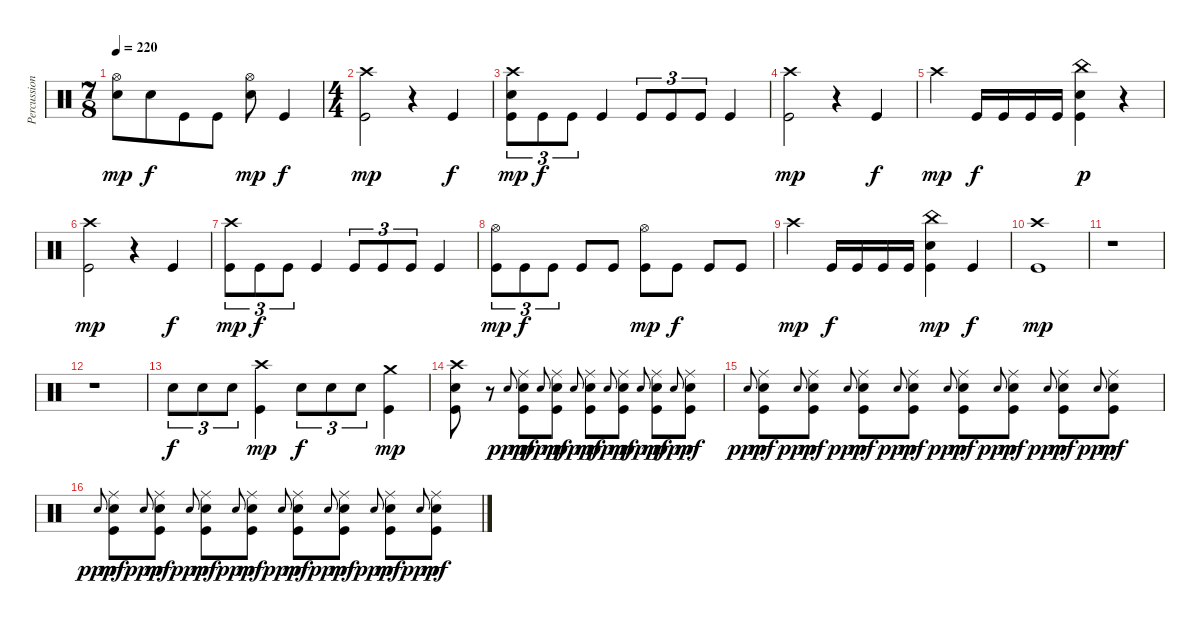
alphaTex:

\track ("Percussion" "Percussion") {instrument percussion}
\staff {score}
\articulation defaults
\ts (7 8)
\tempo 220
\clef neutral
\ks c
("Hi-Hat (open)" "Electric Snare (hit)").8{dy mp} "Electric Snare (hit)".8{dy f} "Kick (hit)".8 "Kick (hit)".8 ("Hi-Hat (open)" "Electric Snare (hit)").8{dy mp} "Kick (hit)".4{dy f} |
\ts (4 4)
("Crash high (hit)" "Kick (hit)").2{dy mp} r.4 "Kick (hit)".4{dy f} |
("Crash high (hit)" "Electric Snare (hit)" "Kick (hit)").8{tu (3 2) dy mp} "Kick (hit)".8{tu (3 2) dy f} "Kick (hit)".8{tu (3 2)} "Kick (hit)".4 "Kick (hit)".8{tu (3 2)} "Kick (hit)".8{tu (3 2)} "Kick (hit)".8{tu (3 2)} "Kick (hit)".4 |
("Crash high (hit)" "Kick (hit)").2{dy mp} r.4 "Kick (hit)".4{dy f} |
"Crash high (hit)".4{dy mp} "Kick (hit)".16{dy f} "Kick (hit)".16 "Kick (hit)".16 "Kick (hit)".16 ("China (hit)" "Electric Snare (hit)" "Kick (hit)").4{dy p} r.4 |
("Crash high (hit)" "Kick (hit)").2{dy mp} r.4 "Kick (hit)".4{dy f} |
("Crash high (hit)" "Kick (hit)").8{tu (3 2) dy mp} "Kick (hit)".8{tu (3 2) dy f} "Kick (hit)".8{tu (3 2)} "Kick (hit)".4 "Kick (hit)".8{tu (3 2)} "Kick (hit)".8{tu (3 2)} "Kick (hit)".8{tu (3 2)} "Kick (hit)".4 |
("Hi-Hat (open)" "Kick (hit)").8{tu (3 2) dy mp} "Kick (hit)".8{tu (3 2) dy f} "Kick (hit)".8{tu (3 2)} "Kick (hit)".8 "Kick (hit)".8 ("Hi-Hat (open)" "Kick (hit)").8{dy mp} "Kick (hit)".8{dy f} "Kick (hit)".8 "Kick (hit)".8 |
"Crash high (hit)".4{dy mp} "Kick (hit)".16{dy f} "Kick (hit)".16 "Kick (hit)".16 "Kick (hit)".16 ("China (hit)" "Electric Snare (hit)" "Kick (hit)").4{dy mp} "Kick (hit)".4{dy f} |
("Crash high (hit)" "Kick (hit)").1{dy mp} |
r.1 |
r.1 |
"Electric Snare (hit)".8{tu (3 2) dy f} "Electric Snare (hit)".8{tu (3 2)} "Electric Snare (hit)".8{tu (3 2)} ("Crash high (hit)" "Kick (hit)").4{dy mp} "Electric Snare (hit)".8{tu (3 2) dy f} "Electric Snare (hit)".8{tu (3 2)} "Electric Snare (hit)".8{tu (3 2)} ("Crash medium (hit)" "Kick (hit)").4{dy mp} |
("Crash high (hit)" "Electric Snare (hit)" "Kick (hit)").8 r.8 "Electric Snare (hit)".8{gr onbeat dy ppp} ("Ride (middle)" "Electric Snare (hit)" "Kick (hit)").8{dy mf} "Electric Snare (hit)".8{gr onbeat dy ppp} ("Ride (middle)" "Electric Snare (hit)" "Kick (hit)").8{dy mf} "Electric Snare (hit)".8{gr onbeat dy ppp} ("Ride (middle)" "Electric Snare (hit)" "Kick (hit)").8{dy mf} "Electric Snare (hit)".8{gr onbeat dy ppp} ("Ride (middle)" "Electric Snare (hit)" "Kick (hit)").8{dy mf} "Electric Snare (hit)".8{gr onbeat dy ppp} ("Ride (middle)" "Electric Snare (hit)" "Kick (hit)").8{dy mf} "Electric Snare (hit)".8{gr onbeat dy ppp} ("Ride (middle)" "Electric Snare (hit)" "Kick (hit)").8{dy mf} |
"Electric Snare (hit)".8{gr onbeat dy ppp} ("Ride (middle)" "Electric Snare (hit)" "Kick (hit)").8{dy mf} "Electric Snare (hit)".8{gr onbeat dy ppp} ("Ride (middle)" "Electric Snare (hit)" "Kick (hit)").8{dy mf} "Electric Snare (hit)".8{gr onbeat dy ppp} ("Ride (middle)" "Electric Snare (hit)" "Kick (hit)").8{dy mf} "Electric Snare (hit)".8{gr onbeat dy ppp} ("Ride (middle)" "Electric Snare (hit)" "Kick (hit)").8{dy mf} "Electric Snare (hit)".8{gr onbeat dy ppp} ("Ride (middle)" "Electric Snare (hit)" "Kick (hit)").8{dy mf} "Electric Snare (hit)".8{gr onbeat dy ppp} ("Ride (middle)" "Electric Snare (hit)" "Kick (hit)").8{dy mf} "Electric Snare (hit)".8{gr onbeat dy ppp} ("Ride (middle)" "Electric Snare (hit)" "Kick (hit)").8{dy mf} "Electric Snare (hit)".8{gr onbeat dy ppp} ("Ride (middle)" "Electric Snare (hit)" "Kick (hit)").8{dy mf} |
"Electric Snare (hit)".8{gr onbeat dy ppp} ("Ride (middle)" "Electric Snare (hit)" "Kick (hit)").8{dy mf} "Electric Snare (hit)".8{gr onbeat dy ppp} ("Ride (middle)" "Electric Snare (hit)" "Kick (hit)").8{dy mf} "Electric Snare (hit)".8{gr onbeat dy ppp} ("Ride (middle)" "Electric Snare (hit)" "Kick (hit)").8{dy mf} "Electric Snare (hit)".8{gr onbeat dy ppp} ("Ride (middle)" "Electric Snare (hit)" "Kick (hit)").8{dy mf} "Electric Snare (hit)".8{gr onbeat dy ppp} ("Ride (middle)" "Electric Snare (hit)" "Kick (hit)").8{dy mf} "Electric Snare (hit)".8{gr onbeat dy ppp} ("Ride (middle)" "Electric Snare (hit)" "Kick (hit)").8{dy mf} "Electric Snare (hit)".8{gr onbeat dy ppp} ("Ride (middle)" "Electric Snare (hit)" "Kick (hit)").8{dy mf} "Electric Snare (hit)".8{gr onbeat dy ppp} ("Ride (middle)" "Electric Snare (hit)" "Kick (hit)").8{dy mf}
